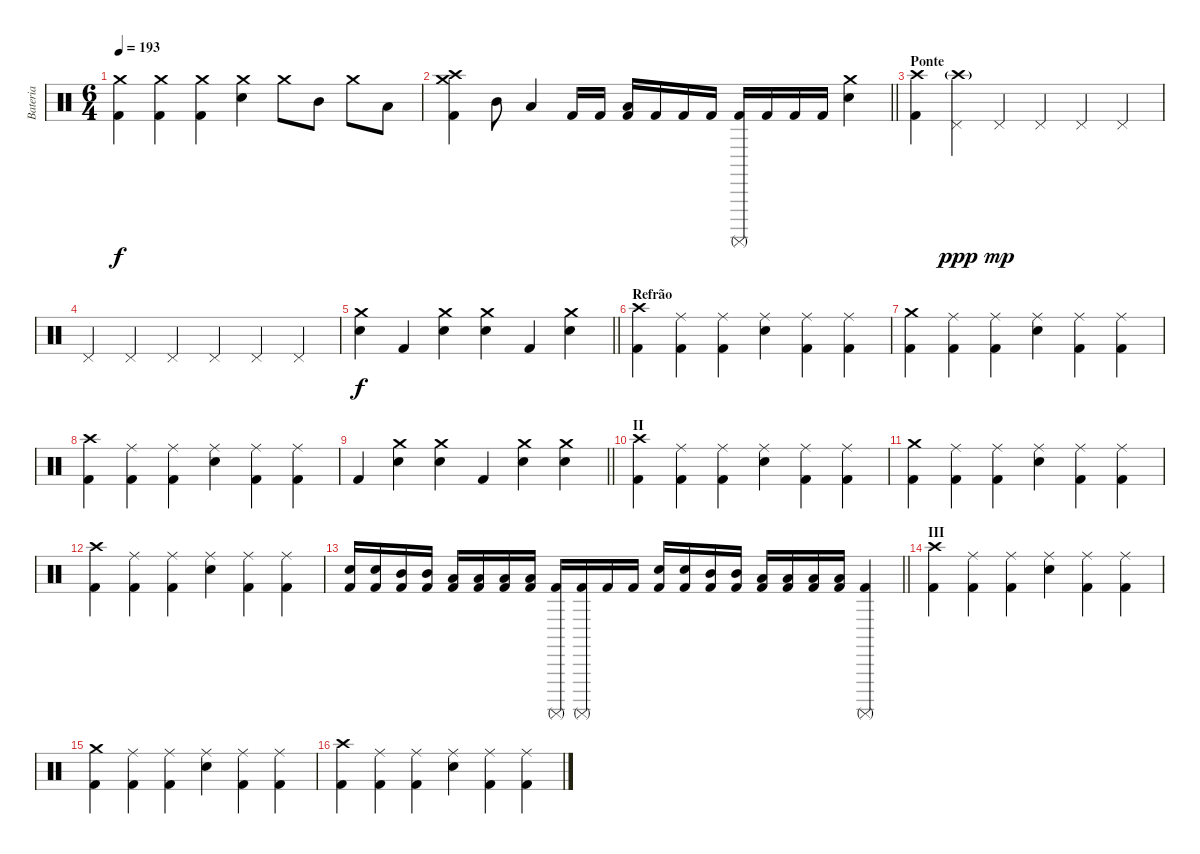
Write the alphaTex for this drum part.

\track ("Bateria" "Bateria") {instrument percussion}
\staff {score}
\articulation defaults
\ts (6 4)
\tempo 193
\clef neutral
\ks c
("Kick (hit) 2" "Crash medium (hit)").4{dy f} ("Kick (hit) 2" "Crash medium (hit)").4 ("Kick (hit) 2" "Crash medium (hit)").4 ("Electric Snare (hit)" "Crash medium (hit)").4 "Crash medium (hit)".8 "Mid Tom (hit)".8 "Crash medium (hit)".8 "Low Tom (hit)".8 |
\barLineRight lightlight
("Kick (hit) 2" "Crash high (hit)" "Crash medium (hit)").4 "Mid Tom (hit)".8 "Low Tom (hit)".4 "Kick (hit) 2".16 "Kick (hit) 2".16 ("Kick (hit) 2" "Low Tom (hit)").16 "Kick (hit) 2".16 "Kick (hit) 2".16 "Kick (hit) 2".16 ("Kick (hit) 2" "Surdo (mute)").16 "Kick (hit) 2".16 "Kick (hit) 2".16 "Kick (hit) 2".16 ("Electric Snare (hit)" "Crash medium (hit)").4 |
\section ("" "Ponte")
("Kick (hit) 2" "Crash high (hit)").4 ("Pedal Hi-Hat (hit)" "Crash high (hit)"{g}).4{dy ppp} "Pedal Hi-Hat (hit)".4{dy mp} "Pedal Hi-Hat (hit)".4 "Pedal Hi-Hat (hit)".4 "Pedal Hi-Hat (hit)".4 |
"Pedal Hi-Hat (hit)".4 "Pedal Hi-Hat (hit)".4 "Pedal Hi-Hat (hit)".4 "Pedal Hi-Hat (hit)".4 "Pedal Hi-Hat (hit)".4 "Pedal Hi-Hat (hit)".4 |
\barLineRight lightlight
("Electric Snare (hit)" "Crash medium (hit)").4{dy f} "Kick (hit) 2".4 ("Electric Snare (hit)" "Crash medium (hit)").4 ("Electric Snare (hit)" "Crash medium (hit)").4 "Kick (hit) 2".4 ("Electric Snare (hit)" "Crash medium (hit)").4 |
\section ("" "Refrão")
("Kick (hit) 2" "Crash high (hit)").4 ("Kick (hit) 2" "Ride (middle)").4 ("Kick (hit) 2" "Ride (middle)").4 ("Electric Snare (hit)" "Ride (middle)").4 ("Kick (hit) 2" "Ride (middle)").4 ("Kick (hit) 2" "Ride (middle)").4 |
("Kick (hit) 2" "Crash medium (hit)").4 ("Kick (hit) 2" "Ride (middle)").4 ("Kick (hit) 2" "Ride (middle)").4 ("Electric Snare (hit)" "Ride (middle)").4 ("Kick (hit) 2" "Ride (middle)").4 ("Kick (hit) 2" "Ride (middle)").4 |
("Kick (hit) 2" "Crash high (hit)").4 ("Kick (hit) 2" "Ride (middle)").4 ("Kick (hit) 2" "Ride (middle)").4 ("Electric Snare (hit)" "Ride (middle)").4 ("Kick (hit) 2" "Ride (middle)").4 ("Kick (hit) 2" "Ride (middle)").4 |
\barLineRight lightlight "Kick (hit) 2".4
("Electric Snare (hit)" "Crash medium (hit)").4 ("Electric Snare (hit)" "Crash medium (hit)").4 "Kick (hit) 2".4 ("Electric Snare (hit)" "Crash medium (hit)").4 ("Electric Snare (hit)" "Crash medium (hit)").4 |
\section ("" "II")
("Kick (hit) 2" "Crash high (hit)").4 ("Kick (hit) 2" "Ride (middle)").4 ("Kick (hit) 2" "Ride (middle)").4 ("Electric Snare (hit)" "Ride (middle)").4 ("Kick (hit) 2" "Ride (middle)").4 ("Kick (hit) 2" "Ride (middle)").4 |
("Kick (hit) 2" "Crash medium (hit)").4 ("Kick (hit) 2" "Ride (middle)").4 ("Kick (hit) 2" "Ride (middle)").4 ("Electric Snare (hit)" "Ride (middle)").4 ("Kick (hit) 2" "Ride (middle)").4 ("Kick (hit) 2" "Ride (middle)").4 |
("Kick (hit) 2" "Crash high (hit)").4 ("Kick (hit) 2" "Ride (middle)").4 ("Kick (hit) 2" "Ride (middle)").4 ("Electric Snare (hit)" "Ride (middle)").4 ("Kick (hit) 2" "Ride (middle)").4 ("Kick (hit) 2" "Ride (middle)").4 |
\barLineRight lightlight
("Kick (hit) 2" "Electric Snare (hit)").16 ("Kick (hit) 2" "Electric Snare (hit)").16 ("Kick (hit) 2" "Mid Tom (hit)").16 ("Kick (hit) 2" "Mid Tom (hit)").16 ("Kick (hit) 2" "Low Tom (hit)").16 ("Kick (hit) 2" "Low Tom (hit)").16 ("Kick (hit) 2" "Low Floor Tom (hit)").16 ("Kick (hit) 2" "Low Floor Tom (hit)").16 ("Kick (hit) 2" "Surdo (mute)").16 ("Kick (hit) 2" "Surdo (mute)").16 "Kick (hit) 2".16 "Kick (hit) 2".16 ("Kick (hit) 2" "Electric Snare (hit)").16 ("Kick (hit) 2" "Electric Snare (hit)").16 ("Kick (hit) 2" "Mid Tom (hit)").16 ("Kick (hit) 2" "Mid Tom (hit)").16 ("Kick (hit) 2" "Low Tom (hit)").16 ("Kick (hit) 2" "Low Tom (hit)").16 ("Kick (hit) 2" "Low Floor Tom (hit)").16 ("Kick (hit) 2" "Low Floor Tom (hit)").16 ("Kick (hit) 2" "Surdo (mute)").4 |
\section ("" "III")
("Kick (hit) 2" "Crash high (hit)").4 ("Kick (hit) 2" "Ride (middle)").4 ("Kick (hit) 2" "Ride (middle)").4 ("Electric Snare (hit)" "Ride (middle)").4 ("Kick (hit) 2" "Ride (middle)").4 ("Kick (hit) 2" "Ride (middle)").4 |
("Kick (hit) 2" "Crash medium (hit)").4 ("Kick (hit) 2" "Ride (middle)").4 ("Kick (hit) 2" "Ride (middle)").4 ("Electric Snare (hit)" "Ride (middle)").4 ("Kick (hit) 2" "Ride (middle)").4 ("Kick (hit) 2" "Ride (middle)").4 |
("Kick (hit) 2" "Crash high (hit)").4 ("Kick (hit) 2" "Ride (middle)").4 ("Kick (hit) 2" "Ride (middle)").4 ("Electric Snare (hit)" "Ride (middle)").4 ("Kick (hit) 2" "Ride (middle)").4 ("Kick (hit) 2" "Ride (middle)").4
